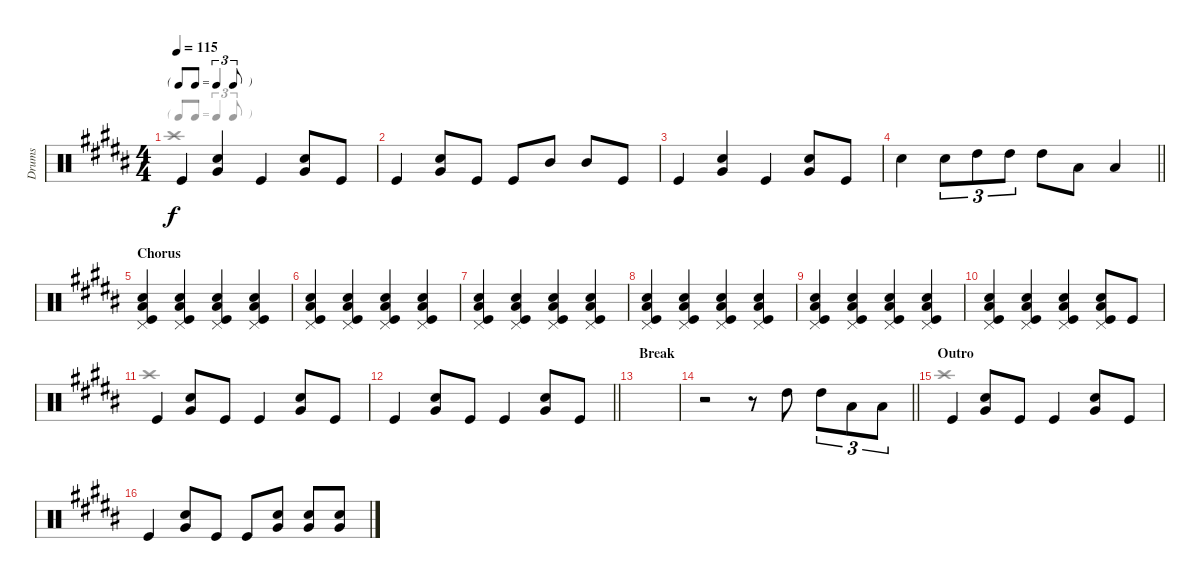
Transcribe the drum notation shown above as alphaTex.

\track ("Drums" "Drums") {instrument percussion}
\staff {score}
\articulation defaults
\voice
\ts (4 4)
\tf triplet8th
\tempo 115
\clef neutral
\ks b "Kick (hit)".4{dy f}
("Snare (hit) 2" "Very Low Tom (hit)").4 "Kick (hit)".4 ("Snare (hit) 2" "Very Low Tom (hit)").8 "Kick (hit)".8 |
"Kick (hit)".4 ("Snare (hit) 2" "Very Low Tom (hit)").8 "Kick (hit)".8 "Kick (hit)".8 "Mid Tom (hit)".8 "Mid Tom (hit)".8 "Kick (hit)".8 |
"Kick (hit)".4 ("Snare (hit) 2" "Very Low Tom (hit)").4 "Kick (hit)".4 ("Snare (hit) 2" "Very Low Tom (hit)").8 "Kick (hit)".8 |
\barLineRight lightlight "Snare (hit) 2".4 "Snare (hit) 2".8{tu (3 2)} "High Tom (hit)".8{tu (3 2)} "High Tom (hit)".8{tu (3 2)} "High Tom (hit)".8 "Low Floor Tom (hit)".8 "Low Floor Tom (hit)".4
|
\section ("" "Chorus")
("Snare (hit) 2" "Low Floor Tom (hit)" "Pedal Hi-Hat (hit)" "Kick (hit)").4 ("Snare (hit) 2" "Low Floor Tom (hit)" "Pedal Hi-Hat (hit)" "Kick (hit)").4 ("Snare (hit) 2" "Low Floor Tom (hit)" "Pedal Hi-Hat (hit)" "Kick (hit)").4 ("Snare (hit) 2" "Low Floor Tom (hit)" "Pedal Hi-Hat (hit)" "Kick (hit)").4 |
("Snare (hit) 2" "Low Floor Tom (hit)" "Pedal Hi-Hat (hit)" "Kick (hit)").4 ("Snare (hit) 2" "Low Floor Tom (hit)" "Pedal Hi-Hat (hit)" "Kick (hit)").4 ("Snare (hit) 2" "Low Floor Tom (hit)" "Pedal Hi-Hat (hit)" "Kick (hit)").4 ("Snare (hit) 2" "Low Floor Tom (hit)" "Pedal Hi-Hat (hit)" "Kick (hit)").4 |
("Snare (hit) 2" "Low Floor Tom (hit)" "Pedal Hi-Hat (hit)" "Kick (hit)").4 ("Snare (hit) 2" "Low Floor Tom (hit)" "Pedal Hi-Hat (hit)" "Kick (hit)").4 ("Snare (hit) 2" "Low Floor Tom (hit)" "Pedal Hi-Hat (hit)" "Kick (hit)").4 ("Snare (hit) 2" "Low Floor Tom (hit)" "Pedal Hi-Hat (hit)" "Kick (hit)").4 |
("Snare (hit) 2" "Low Floor Tom (hit)" "Pedal Hi-Hat (hit)" "Kick (hit)").4 ("Snare (hit) 2" "Low Floor Tom (hit)" "Pedal Hi-Hat (hit)" "Kick (hit)").4 ("Snare (hit) 2" "Low Floor Tom (hit)" "Pedal Hi-Hat (hit)" "Kick (hit)").4 ("Snare (hit) 2" "Low Floor Tom (hit)" "Pedal Hi-Hat (hit)" "Kick (hit)").4 |
("Snare (hit) 2" "Low Floor Tom (hit)" "Pedal Hi-Hat (hit)" "Kick (hit)").4 ("Snare (hit) 2" "Low Floor Tom (hit)" "Pedal Hi-Hat (hit)" "Kick (hit)").4 ("Snare (hit) 2" "Low Floor Tom (hit)" "Pedal Hi-Hat (hit)" "Kick (hit)").4 ("Snare (hit) 2" "Low Floor Tom (hit)" "Pedal Hi-Hat (hit)" "Kick (hit)").4 |
("Snare (hit) 2" "Low Floor Tom (hit)" "Pedal Hi-Hat (hit)" "Kick (hit)").4 ("Snare (hit) 2" "Low Floor Tom (hit)" "Pedal Hi-Hat (hit)" "Kick (hit)").4 ("Snare (hit) 2" "Low Floor Tom (hit)" "Pedal Hi-Hat (hit)" "Kick (hit)").4 ("Snare (hit) 2" "Low Floor Tom (hit)" "Pedal Hi-Hat (hit)" "Kick (hit)").8 "Kick (hit)".8 |
"Kick (hit)".4 ("Snare (hit) 2" "Very Low Tom (hit)").8 "Kick (hit)".8 "Kick (hit)".4 ("Snare (hit) 2" "Very Low Tom (hit)").8 "Kick (hit)".8 |
\barLineRight lightlight "Kick (hit)".4
("Snare (hit) 2" "Very Low Tom (hit)").8 "Kick (hit)".8 "Kick (hit)".4 ("Snare (hit) 2" "Very Low Tom (hit)").8 "Kick (hit)".8 |
\section ("" "Break")
|
\barLineRight lightlight
r.2 r.8 "High Tom (hit)".8 "High Tom (hit)".8{tu (3 2)} "Low Floor Tom (hit)".8{tu (3 2)} "Low Floor Tom (hit)".8{tu (3 2)} |
\section ("" "Outro")
"Kick (hit)".4 ("Snare (hit) 2" "Very Low Tom (hit)").8 "Kick (hit)".8 "Kick (hit)".4 ("Snare (hit) 2" "Very Low Tom (hit)").8 "Kick (hit)".8 |
"Kick (hit)".4 ("Snare (hit) 2" "Very Low Tom (hit)").8 "Kick (hit)".8 "Kick (hit)".8 ("Snare (hit) 2" "Very Low Tom (hit)").8 ("Snare (hit) 2" "Very Low Tom (hit)").8 ("Snare (hit) 2" "Very Low Tom (hit)").8
\voice
\clef neutral
\ottava regular
\simile none
\ks b "Crash high (hit)".1{dy f}
|
|
|
\barLineRight lightlight
|
|
|
|
|
|
|
"Crash high (hit)".1 |
\barLineRight lightlight
|
|
\barLineRight lightlight
|
"Crash high (hit)".1 |
